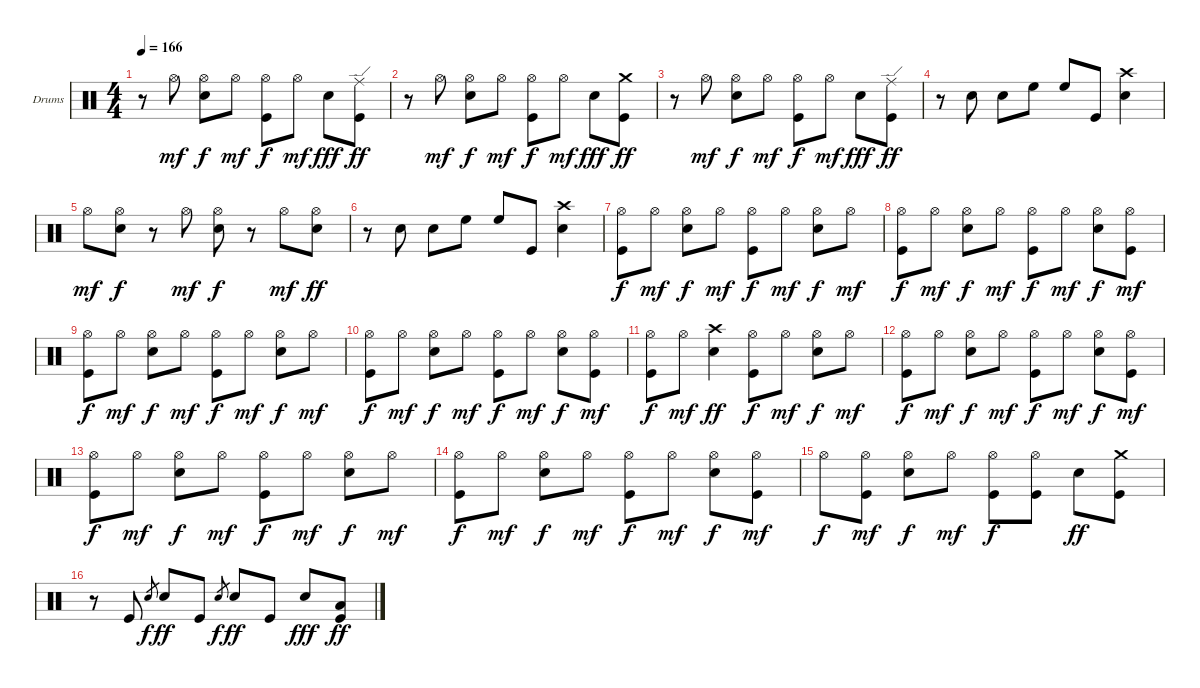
\defaultSystemsLayout 4
\bracketExtendMode groupsimilarinstruments
\firstSystemTrackNameOrientation horizontal
\otherSystemsTrackNameOrientation horizontal
\track ("Lars Ulrich" "Drums") {instrument percussion}
\staff {score}
\articulation defaults
\ts (4 4)
\tempo 166
\clef neutral
\scale
0.333333
\ks c
r.8{dy ff} "Hi-Hat (open)".8{dy mf} ("Hi-Hat (open)" "Snare (hit) 2").8{dy f} "Hi-Hat (open)".8{dy mf} ("Hi-Hat (open)" "Kick (hit)").8{dy f} "Hi-Hat (open)".8{dy mf} "Snare (hit) 2".8{dy fff} ("Ride (edge)" "Kick (hit)").8{dy ff} |
\scale
0.333333 r.8 "Hi-Hat (open)".8{dy mf} ("Hi-Hat (open)" "Snare (hit) 2").8{dy f} "Hi-Hat (open)".8{dy mf} ("Hi-Hat (open)" "Kick (hit)").8{dy f} "Hi-Hat (open)".8{dy mf} "Snare (hit) 2".8{dy fff} ("Crash medium (hit)" "Kick (hit)").8{dy ff} |
\scale
0.333333 r.8 "Hi-Hat (open)".8{dy mf} ("Hi-Hat (open)" "Snare (hit) 2").8{dy f} "Hi-Hat (open)".8{dy mf} ("Hi-Hat (open)" "Kick (hit)").8{dy f} "Hi-Hat (open)".8{dy mf} "Snare (hit) 2".8{dy fff} ("Ride (edge)" "Kick (hit)").8{dy ff} |
\scale
0.333333 r.8 "Snare (hit) 2".8 "Snare (hit) 2".8 "High Floor Tom (hit)".8 "High Floor Tom (hit)".8 "Kick (hit)".8 ("Crash high (hit)" "Snare (hit) 2").4 |
\scale
0.333333 "Hi-Hat (open)".8{dy mf} ("Hi-Hat (open)" "Snare (hit) 2").8{dy f} r.8 "Hi-Hat (open)".8{dy mf} ("Hi-Hat (open)" "Snare (hit) 2").8{dy f} r.8 "Hi-Hat (open)".8{dy mf} ("Hi-Hat (open)" "Snare (hit) 2").8{dy ff} |
\scale
0.333333 r.8 "Snare (hit) 2".8 "Snare (hit) 2".8 "High Floor Tom (hit)".8 "High Floor Tom (hit)".8 "Kick (hit)".8 ("Crash high (hit)" "Snare (hit) 2").4 |
\scale
0.333333 ("Hi-Hat (open)" "Kick (hit)").8{dy f} "Hi-Hat (open)".8{dy mf} ("Hi-Hat (open)" "Snare (hit) 2").8{dy f} "Hi-Hat (open)".8{dy mf} ("Hi-Hat (open)" "Kick (hit)").8{dy f} "Hi-Hat (open)".8{dy mf} ("Hi-Hat (open)" "Snare (hit) 2").8{dy f} "Hi-Hat (open)".8{dy mf} |
\scale
0.333333 ("Hi-Hat (open)" "Kick (hit)").8{dy f} "Hi-Hat (open)".8{dy mf} ("Hi-Hat (open)" "Snare (hit) 2").8{dy f} "Hi-Hat (open)".8{dy mf} ("Hi-Hat (open)" "Kick (hit)").8{dy f} "Hi-Hat (open)".8{dy mf} ("Hi-Hat (open)" "Snare (hit) 2").8{dy f} ("Hi-Hat (open)" "Kick (hit)").8{dy mf} |
\scale
0.333333 ("Hi-Hat (open)" "Kick (hit)").8{dy f} "Hi-Hat (open)".8{dy mf} ("Hi-Hat (open)" "Snare (hit) 2").8{dy f} "Hi-Hat (open)".8{dy mf} ("Hi-Hat (open)" "Kick (hit)").8{dy f} "Hi-Hat (open)".8{dy mf} ("Hi-Hat (open)" "Snare (hit) 2").8{dy f} "Hi-Hat (open)".8{dy mf} |
\scale
0.333333 ("Hi-Hat (open)" "Kick (hit)").8{dy f} "Hi-Hat (open)".8{dy mf} ("Hi-Hat (open)" "Snare (hit) 2").8{dy f} "Hi-Hat (open)".8{dy mf} ("Hi-Hat (open)" "Kick (hit)").8{dy f} "Hi-Hat (open)".8{dy mf} ("Hi-Hat (open)" "Snare (hit) 2").8{dy f} ("Hi-Hat (open)" "Kick (hit)").8{dy mf} |
\scale
0.333333 ("Hi-Hat (open)" "Kick (hit)").8{dy f} "Hi-Hat (open)".8{dy mf} ("Crash high (hit)" "Snare (hit) 2").4{dy ff} ("Hi-Hat (open)" "Kick (hit)").8{dy f} "Hi-Hat (open)".8{dy mf} ("Hi-Hat (open)" "Snare (hit) 2").8{dy f} "Hi-Hat (open)".8{dy mf} |
\scale
0.333333 ("Hi-Hat (open)" "Kick (hit)").8{dy f} "Hi-Hat (open)".8{dy mf} ("Hi-Hat (open)" "Snare (hit) 2").8{dy f} "Hi-Hat (open)".8{dy mf} ("Hi-Hat (open)" "Kick (hit)").8{dy f} "Hi-Hat (open)".8{dy mf} ("Hi-Hat (open)" "Snare (hit) 2").8{dy f} ("Hi-Hat (open)" "Kick (hit)").8{dy mf} |
\scale
0.333333 ("Hi-Hat (open)" "Kick (hit)").8{dy f} "Hi-Hat (open)".8{dy mf} ("Hi-Hat (open)" "Snare (hit) 2").8{dy f} "Hi-Hat (open)".8{dy mf} ("Hi-Hat (open)" "Kick (hit)").8{dy f} "Hi-Hat (open)".8{dy mf} ("Hi-Hat (open)" "Snare (hit) 2").8{dy f} "Hi-Hat (open)".8{dy mf} |
\scale
0.333333 ("Hi-Hat (open)" "Kick (hit)").8{dy f} "Hi-Hat (open)".8{dy mf} ("Hi-Hat (open)" "Snare (hit) 2").8{dy f} "Hi-Hat (open)".8{dy mf} ("Hi-Hat (open)" "Kick (hit)").8{dy f} "Hi-Hat (open)".8{dy mf} ("Hi-Hat (open)" "Snare (hit) 2").8{dy f} ("Hi-Hat (open)" "Kick (hit)").8{dy mf} |
\scale
0.333333 "Hi-Hat (open)".8{dy f} ("Hi-Hat (open)" "Kick (hit)").8{dy mf} ("Hi-Hat (open)" "Snare (hit) 2").8{dy f} "Hi-Hat (open)".8{dy mf} ("Hi-Hat (open)" "Kick (hit)").8{dy f} ("Hi-Hat (open)" "Kick (hit)").8 "Snare (hit) 2".8{dy ff} ("Crash medium (hit)" "Kick (hit)").8 |
\scale
0.333333 r.8 "Kick (hit)".8 "Snare (hit) 2".8{gr dy f} "Snare (hit) 2".8{dy ff} "Kick (hit)".8 "Snare (hit) 2".8{gr dy f} "Snare (hit) 2".8{dy ff} "Kick (hit)".8 "Snare (hit) 2".8{dy fff} ("Low Tom (hit)" "Kick (hit)").8{dy ff}
